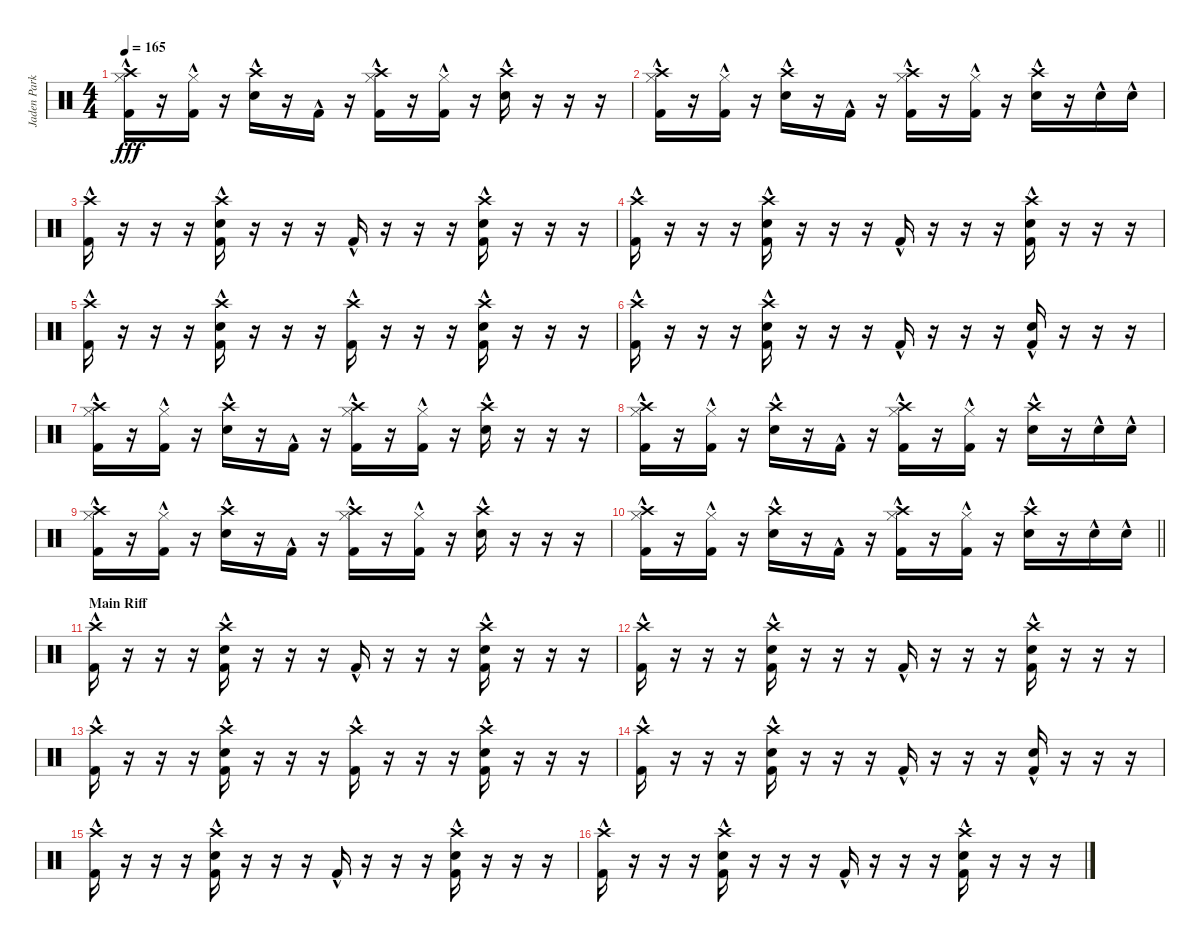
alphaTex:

\track ("Jaden Parkes" "Jaden Park") {instrument percussion}
\staff {score}
\articulation defaults
\ts (4 4)
\tempo 165
\clef neutral
\ks c
("Hi-Hat (closed)"{hac} "Crash high (hit)" "Kick (hit) 2"{hac}).16{dy fff} r.16 ("Hi-Hat (closed)"{hac} "Kick (hit) 2"{hac}).16 r.16 ("Crash high (hit)"{hac} "Electric Snare (hit)"{hac}).16 r.16 "Kick (hit) 2"{hac}.16 r.16 ("Hi-Hat (closed)"{hac} "Crash high (hit)" "Kick (hit) 2"{hac}).16 r.16 ("Hi-Hat (closed)"{hac} "Kick (hit) 2"{hac}).16 r.16 ("Crash high (hit)"{hac} "Electric Snare (hit)"{hac}).16 r.16 r.16 r.16 |
("Hi-Hat (closed)"{hac} "Crash high (hit)" "Kick (hit) 2"{hac}).16 r.16 ("Hi-Hat (closed)"{hac} "Kick (hit) 2"{hac}).16 r.16 ("Crash high (hit)"{hac} "Electric Snare (hit)"{hac}).16 r.16 "Kick (hit) 2"{hac}.16 r.16 ("Hi-Hat (closed)"{hac} "Crash high (hit)" "Kick (hit) 2"{hac}).16 r.16 ("Hi-Hat (closed)"{hac} "Kick (hit) 2"{hac}).16 r.16 ("Crash high (hit)"{hac} "Electric Snare (hit)"{hac}).16 r.16 "Electric Snare (hit)"{hac}.16 "Electric Snare (hit)"{hac}.16 |
("Crash high (hit)" "Kick (hit) 2"{hac}).16 r.16 r.16 r.16 ("Crash high (hit)"{hac} "Electric Snare (hit)" "Kick (hit) 2"{hac}).16 r.16 r.16 r.16 "Kick (hit) 2"{hac}.16 r.16 r.16 r.16 ("Crash high (hit)"{hac} "Electric Snare (hit)" "Kick (hit) 2"{hac}).16 r.16 r.16 r.16 |
("Crash high (hit)" "Kick (hit) 2"{hac}).16 r.16 r.16 r.16 ("Crash high (hit)"{hac} "Electric Snare (hit)" "Kick (hit) 2"{hac}).16 r.16 r.16 r.16 "Kick (hit) 2"{hac}.16 r.16 r.16 r.16 ("Crash high (hit)"{hac} "Electric Snare (hit)" "Kick (hit) 2"{hac}).16 r.16 r.16 r.16 |
("Crash high (hit)" "Kick (hit) 2"{hac}).16 r.16 r.16 r.16 ("Crash high (hit)"{hac} "Electric Snare (hit)" "Kick (hit) 2"{hac}).16 r.16 r.16 r.16 ("Crash high (hit)" "Kick (hit) 2"{hac}).16 r.16 r.16 r.16 ("Crash high (hit)"{hac} "Electric Snare (hit)" "Kick (hit) 2"{hac}).16 r.16 r.16 r.16 |
("Crash high (hit)" "Kick (hit) 2"{hac}).16 r.16 r.16 r.16 ("Crash high (hit)"{hac} "Electric Snare (hit)" "Kick (hit) 2"{hac}).16 r.16 r.16 r.16 "Kick (hit) 2"{hac}.16 r.16 r.16 r.16 ("Electric Snare (hit)" "Kick (hit) 2"{hac}).16 r.16 r.16 r.16 |
("Hi-Hat (closed)"{hac} "Crash high (hit)" "Kick (hit) 2"{hac}).16 r.16 ("Hi-Hat (closed)"{hac} "Kick (hit) 2"{hac}).16 r.16 ("Crash high (hit)"{hac} "Electric Snare (hit)"{hac}).16 r.16 "Kick (hit) 2"{hac}.16 r.16 ("Hi-Hat (closed)"{hac} "Crash high (hit)" "Kick (hit) 2"{hac}).16 r.16 ("Hi-Hat (closed)"{hac} "Kick (hit) 2"{hac}).16 r.16 ("Crash high (hit)"{hac} "Electric Snare (hit)"{hac}).16 r.16 r.16 r.16 |
("Hi-Hat (closed)"{hac} "Crash high (hit)" "Kick (hit) 2"{hac}).16 r.16 ("Hi-Hat (closed)"{hac} "Kick (hit) 2"{hac}).16 r.16 ("Crash high (hit)"{hac} "Electric Snare (hit)"{hac}).16 r.16 "Kick (hit) 2"{hac}.16 r.16 ("Hi-Hat (closed)"{hac} "Crash high (hit)" "Kick (hit) 2"{hac}).16 r.16 ("Hi-Hat (closed)"{hac} "Kick (hit) 2"{hac}).16 r.16 ("Crash high (hit)"{hac} "Electric Snare (hit)"{hac}).16 r.16 "Electric Snare (hit)"{hac}.16 "Electric Snare (hit)"{hac}.16 |
("Hi-Hat (closed)"{hac} "Crash high (hit)" "Kick (hit) 2"{hac}).16 r.16 ("Hi-Hat (closed)"{hac} "Kick (hit) 2"{hac}).16 r.16 ("Crash high (hit)"{hac} "Electric Snare (hit)"{hac}).16 r.16 "Kick (hit) 2"{hac}.16 r.16 ("Hi-Hat (closed)"{hac} "Crash high (hit)" "Kick (hit) 2"{hac}).16 r.16 ("Hi-Hat (closed)"{hac} "Kick (hit) 2"{hac}).16 r.16 ("Crash high (hit)"{hac} "Electric Snare (hit)"{hac}).16 r.16 r.16 r.16 |
\barLineRight lightlight
("Hi-Hat (closed)"{hac} "Crash high (hit)" "Kick (hit) 2"{hac}).16 r.16 ("Hi-Hat (closed)"{hac} "Kick (hit) 2"{hac}).16 r.16 ("Crash high (hit)"{hac} "Electric Snare (hit)"{hac}).16 r.16 "Kick (hit) 2"{hac}.16 r.16 ("Hi-Hat (closed)"{hac} "Crash high (hit)" "Kick (hit) 2"{hac}).16 r.16 ("Hi-Hat (closed)"{hac} "Kick (hit) 2"{hac}).16 r.16 ("Crash high (hit)"{hac} "Electric Snare (hit)"{hac}).16 r.16 "Electric Snare (hit)"{hac}.16 "Electric Snare (hit)"{hac}.16 |
\section ("" "Main Riff")
("Crash high (hit)" "Kick (hit) 2"{hac}).16{volume 16} r.16 r.16 r.16 ("Crash high (hit)"{hac} "Electric Snare (hit)" "Kick (hit) 2"{hac}).16 r.16 r.16 r.16 "Kick (hit) 2"{hac}.16 r.16 r.16 r.16 ("Crash high (hit)"{hac} "Electric Snare (hit)" "Kick (hit) 2"{hac}).16 r.16 r.16 r.16 |
("Crash high (hit)" "Kick (hit) 2"{hac}).16 r.16 r.16 r.16 ("Crash high (hit)"{hac} "Electric Snare (hit)" "Kick (hit) 2"{hac}).16 r.16 r.16 r.16 "Kick (hit) 2"{hac}.16 r.16 r.16 r.16 ("Crash high (hit)"{hac} "Electric Snare (hit)" "Kick (hit) 2"{hac}).16 r.16 r.16 r.16 |
("Crash high (hit)" "Kick (hit) 2"{hac}).16 r.16 r.16 r.16 ("Crash high (hit)"{hac} "Electric Snare (hit)" "Kick (hit) 2"{hac}).16 r.16 r.16 r.16 ("Crash high (hit)" "Kick (hit) 2"{hac}).16 r.16 r.16 r.16 ("Crash high (hit)"{hac} "Electric Snare (hit)" "Kick (hit) 2"{hac}).16 r.16 r.16 r.16 |
("Crash high (hit)" "Kick (hit) 2"{hac}).16 r.16 r.16 r.16 ("Crash high (hit)"{hac} "Electric Snare (hit)" "Kick (hit) 2"{hac}).16 r.16 r.16 r.16 "Kick (hit) 2"{hac}.16 r.16 r.16 r.16 ("Electric Snare (hit)" "Kick (hit) 2"{hac}).16 r.16 r.16 r.16 |
("Crash high (hit)" "Kick (hit) 2"{hac}).16 r.16 r.16 r.16 ("Crash high (hit)"{hac} "Electric Snare (hit)" "Kick (hit) 2"{hac}).16 r.16 r.16 r.16 "Kick (hit) 2"{hac}.16 r.16 r.16 r.16 ("Crash high (hit)"{hac} "Electric Snare (hit)" "Kick (hit) 2"{hac}).16 r.16 r.16 r.16 |
("Crash high (hit)" "Kick (hit) 2"{hac}).16 r.16 r.16 r.16 ("Crash high (hit)"{hac} "Electric Snare (hit)" "Kick (hit) 2"{hac}).16 r.16 r.16 r.16 "Kick (hit) 2"{hac}.16 r.16 r.16 r.16 ("Crash high (hit)"{hac} "Electric Snare (hit)" "Kick (hit) 2"{hac}).16 r.16 r.16 r.16
